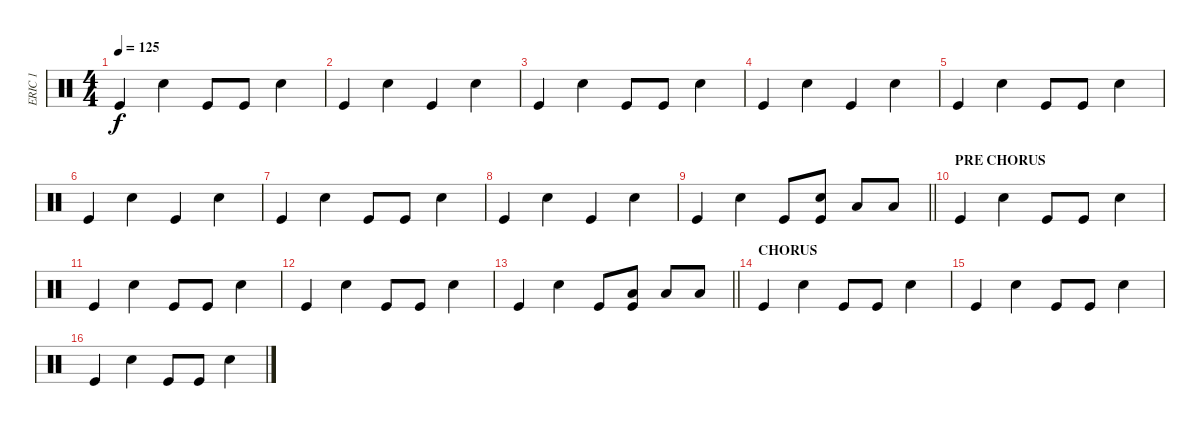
\track ("ERIC 1" "ERIC 1") {instrument percussion}
\staff {score}
\articulation defaults
\ts (4 4)
\tempo 125
\clef neutral
\ks c "Kick (hit)".4{dy f} "Electric Snare (hit)".4 "Kick (hit)".8 "Kick (hit)".8 "Electric Snare (hit)".4
|
"Kick (hit)".4 "Electric Snare (hit)".4 "Kick (hit)".4 "Electric Snare (hit)".4 |
"Kick (hit)".4 "Electric Snare (hit)".4 "Kick (hit)".8 "Kick (hit)".8 "Electric Snare (hit)".4 |
"Kick (hit)".4 "Electric Snare (hit)".4 "Kick (hit)".4 "Electric Snare (hit)".4 |
"Kick (hit)".4 "Electric Snare (hit)".4 "Kick (hit)".8 "Kick (hit)".8 "Electric Snare (hit)".4 |
"Kick (hit)".4 "Electric Snare (hit)".4 "Kick (hit)".4 "Electric Snare (hit)".4 |
"Kick (hit)".4 "Electric Snare (hit)".4 "Kick (hit)".8 "Kick (hit)".8 "Electric Snare (hit)".4 |
"Kick (hit)".4 "Electric Snare (hit)".4 "Kick (hit)".4 "Electric Snare (hit)".4 |
\barLineRight lightlight "Kick (hit)".4 "Electric Snare (hit)".4 "Kick (hit)".8
("Electric Snare (hit)" "Kick (hit)").8 "Low Tom (hit)".8 "Low Floor Tom (hit)".8 |
\section ("" "PRE CHORUS")
"Kick (hit)".4 "Electric Snare (hit)".4 "Kick (hit)".8 "Kick (hit)".8 "Electric Snare (hit)".4 |
"Kick (hit)".4 "Electric Snare (hit)".4 "Kick (hit)".8 "Kick (hit)".8 "Electric Snare (hit)".4 |
"Kick (hit)".4 "Electric Snare (hit)".4 "Kick (hit)".8 "Kick (hit)".8 "Electric Snare (hit)".4 |
\barLineRight lightlight "Kick (hit)".4 "Electric Snare (hit)".4 "Kick (hit)".8
("Low Tom (hit)" "Kick (hit)").8 "Low Floor Tom (hit)".8 "Low Floor Tom (hit)".8 |
\section ("" "CHORUS")
"Kick (hit)".4 "Electric Snare (hit)".4 "Kick (hit)".8 "Kick (hit)".8 "Electric Snare (hit)".4 |
"Kick (hit)".4 "Electric Snare (hit)".4 "Kick (hit)".8 "Kick (hit)".8 "Electric Snare (hit)".4 |
"Kick (hit)".4 "Electric Snare (hit)".4 "Kick (hit)".8 "Kick (hit)".8 "Electric Snare (hit)".4
